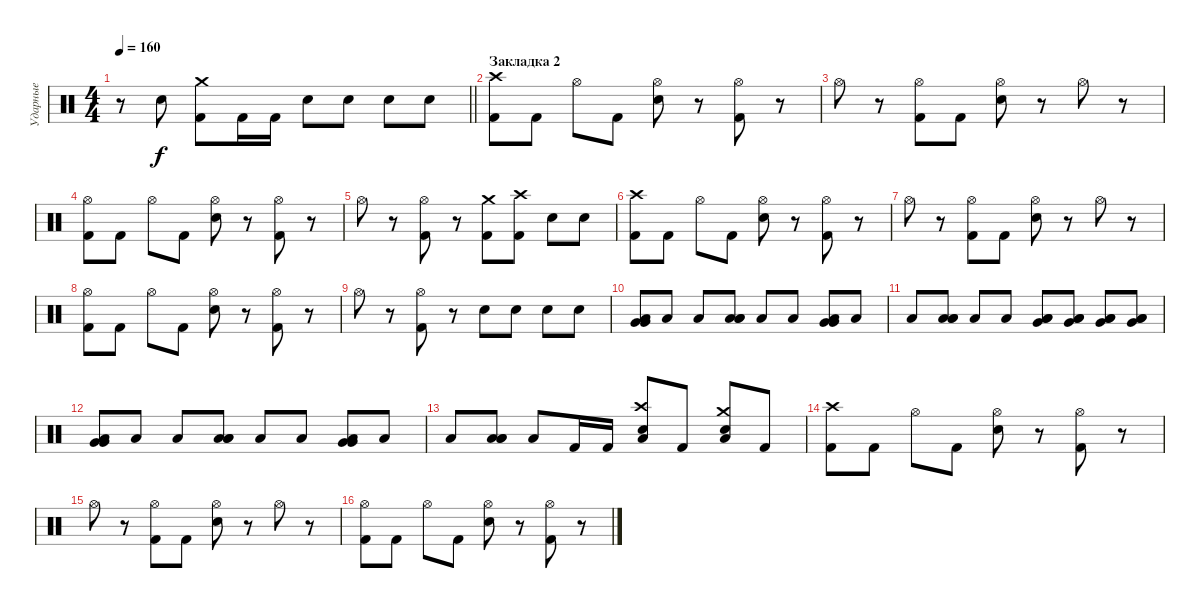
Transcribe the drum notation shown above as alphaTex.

\track ("Ударные" "Ударные") {instrument percussion}
\staff {score}
\articulation defaults
\ts (4 4)
\tempo 160
\clef neutral
\barLineRight lightlight
\ks c
r.8{dy f} "Snare (hit) 2".8 ("Crash medium (hit)" "Kick (hit) 2").8 "Kick (hit) 2".16 "Kick (hit) 2".16 "Snare (hit) 2".8 "Snare (hit) 2".8 "Snare (hit) 2".8 "Snare (hit) 2".8 |
\section ("" "Закладка 2")
("Crash high (hit)" "Kick (hit) 2").8 "Kick (hit) 2".8 "Hi-Hat (open)".8 "Kick (hit) 2".8 ("Hi-Hat (open)" "Snare (hit) 2").8 r.8 ("Hi-Hat (open)" "Kick (hit) 2").8 r.8 |
"Hi-Hat (open)".8 r.8 ("Hi-Hat (open)" "Kick (hit) 2").8 "Kick (hit) 2".8 ("Hi-Hat (open)" "Snare (hit) 2").8 r.8 "Hi-Hat (open)".8 r.8 |
("Hi-Hat (open)" "Kick (hit) 2").8 "Kick (hit) 2".8 "Hi-Hat (open)".8 "Kick (hit) 2".8 ("Hi-Hat (open)" "Snare (hit) 2").8 r.8 ("Hi-Hat (open)" "Kick (hit) 2").8 r.8 |
"Hi-Hat (open)".8 r.8 ("Hi-Hat (open)" "Kick (hit) 2").8 r.8 ("Crash medium (hit)" "Kick (hit) 2").8 ("Crash high (hit)" "Kick (hit) 2").8 "Snare (hit) 2".8 "Snare (hit) 2".8 |
("Crash high (hit)" "Kick (hit) 2").8 "Kick (hit) 2".8 "Hi-Hat (open)".8 "Kick (hit) 2".8 ("Hi-Hat (open)" "Snare (hit) 2").8 r.8 ("Hi-Hat (open)" "Kick (hit) 2").8 r.8 |
"Hi-Hat (open)".8 r.8 ("Hi-Hat (open)" "Kick (hit) 2").8 "Kick (hit) 2".8 ("Hi-Hat (open)" "Snare (hit) 2").8 r.8 "Hi-Hat (open)".8 r.8 |
("Hi-Hat (open)" "Kick (hit) 2").8 "Kick (hit) 2".8 "Hi-Hat (open)".8 "Kick (hit) 2".8 ("Hi-Hat (open)" "Snare (hit) 2").8 r.8 ("Hi-Hat (open)" "Kick (hit) 2").8 r.8 |
"Hi-Hat (open)".8 r.8 ("Hi-Hat (open)" "Kick (hit) 2").8 r.8 "Snare (hit) 2".8 "Snare (hit) 2".8 "Snare (hit) 2".8 "Snare (hit) 2".8 |
("Very Low Tom (hit)" "Very Low Tom (hit)" "Low Floor Tom (hit)").8 "Low Floor Tom (hit)".8 "Low Floor Tom (hit)".8 ("Low Tom (hit)" "Low Tom (hit)" "Low Floor Tom (hit)").8 "Low Floor Tom (hit)".8 "Low Floor Tom (hit)".8 ("Very Low Tom (hit)" "Very Low Tom (hit)" "Low Floor Tom (hit)").8 "Low Floor Tom (hit)".8 |
"Low Floor Tom (hit)".8 ("Low Tom (hit)" "Low Tom (hit)" "Low Floor Tom (hit)").8 "Low Floor Tom (hit)".8 "Low Floor Tom (hit)".8 ("Low Tom (hit)" "Low Floor Tom (hit)" "Very Low Tom (hit)").8 ("Low Tom (hit)" "Low Floor Tom (hit)" "Very Low Tom (hit)").8 ("Low Tom (hit)" "Low Floor Tom (hit)" "Very Low Tom (hit)").8 ("Low Tom (hit)" "Low Floor Tom (hit)" "Very Low Tom (hit)").8 |
("Very Low Tom (hit)" "Very Low Tom (hit)" "Low Floor Tom (hit)").8 "Low Floor Tom (hit)".8 "Low Floor Tom (hit)".8 ("Low Tom (hit)" "Low Tom (hit)" "Low Floor Tom (hit)").8 "Low Floor Tom (hit)".8 "Low Floor Tom (hit)".8 ("Very Low Tom (hit)" "Very Low Tom (hit)" "Low Floor Tom (hit)").8 "Low Floor Tom (hit)".8 |
"Low Floor Tom (hit)".8 ("Low Tom (hit)" "Low Tom (hit)" "Low Floor Tom (hit)").8 "Low Floor Tom (hit)".8 "Kick (hit) 2".16 "Kick (hit) 2".16 ("Crash high (hit)" "Snare (hit) 2" "Low Floor Tom (hit)").8 "Kick (hit) 2".8 ("Crash medium (hit)" "Snare (hit) 2" "Low Floor Tom (hit)").8 "Kick (hit) 2".8 |
("Crash high (hit)" "Kick (hit) 2").8 "Kick (hit) 2".8 "Hi-Hat (open)".8 "Kick (hit) 2".8 ("Hi-Hat (open)" "Snare (hit) 2").8 r.8 ("Hi-Hat (open)" "Kick (hit) 2").8 r.8 |
"Hi-Hat (open)".8 r.8 ("Hi-Hat (open)" "Kick (hit) 2").8 "Kick (hit) 2".8 ("Hi-Hat (open)" "Snare (hit) 2").8 r.8 "Hi-Hat (open)".8 r.8 |
("Hi-Hat (open)" "Kick (hit) 2").8 "Kick (hit) 2".8 "Hi-Hat (open)".8 "Kick (hit) 2".8 ("Hi-Hat (open)" "Snare (hit) 2").8 r.8 ("Hi-Hat (open)" "Kick (hit) 2").8 r.8
